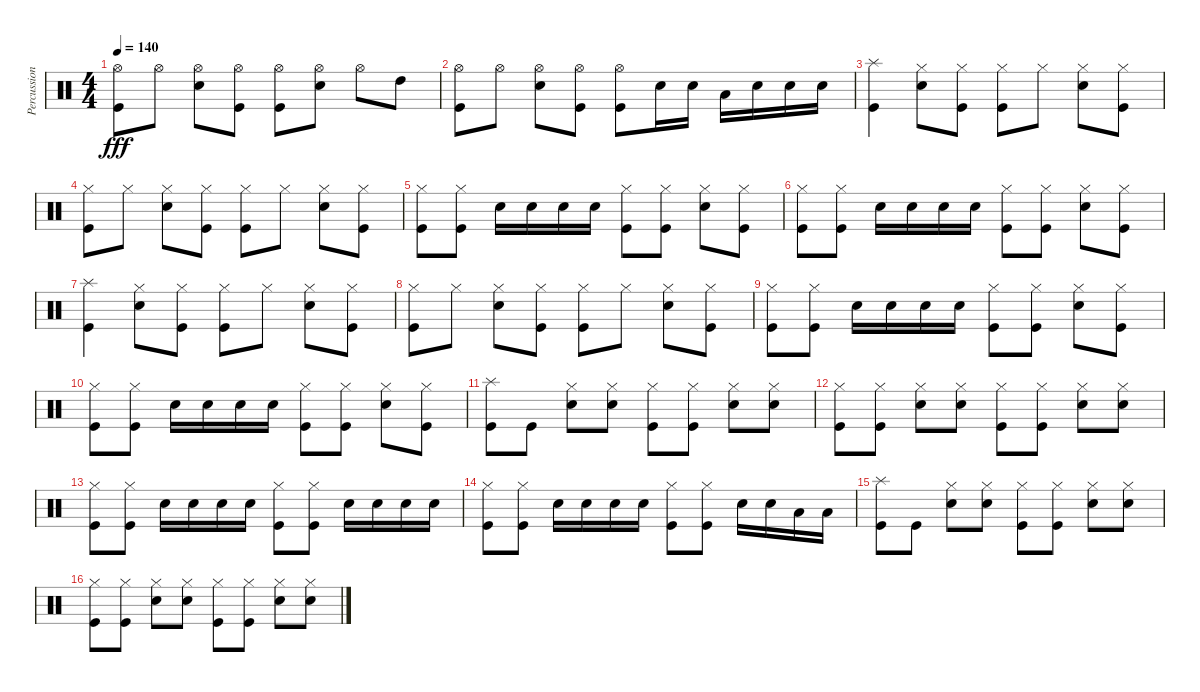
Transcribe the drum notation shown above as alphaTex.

\track ("Percussion" "Percussion") {instrument percussion}
\staff {score}
\articulation defaults
\ts (4 4)
\tempo 140
\clef neutral
\ks c
("Hi-Hat (open)" "Kick (hit)").8{dy fff} "Hi-Hat (open)".8 ("Hi-Hat (open)" "Snare (hit) 2").8 ("Hi-Hat (open)" "Kick (hit)").8 ("Hi-Hat (open)" "Kick (hit)").8 ("Hi-Hat (open)" "Snare (hit) 2").8 "Hi-Hat (open)".8 "High Tom (hit)".8 |
("Hi-Hat (open)" "Kick (hit)").8 "Hi-Hat (open)".8 ("Hi-Hat (open)" "Snare (hit) 2").8 ("Hi-Hat (open)" "Kick (hit)").8 ("Hi-Hat (open)" "Kick (hit)").8 "Snare (hit) 2".16 "Snare (hit) 2".16 "Low Tom (hit)".16 "Snare (hit) 2".16 "Snare (hit) 2".16 "Snare (hit) 2".16 |
("Splash (hit)" "Kick (hit)").4 ("Hi-Hat (closed)" "Snare (hit) 2").8 ("Hi-Hat (closed)" "Kick (hit)").8 ("Hi-Hat (closed)" "Kick (hit)").8 "Hi-Hat (closed)".8 ("Hi-Hat (closed)" "Snare (hit) 2").8 ("Hi-Hat (closed)" "Kick (hit)").8 |
("Hi-Hat (closed)" "Kick (hit)").8 "Hi-Hat (closed)".8 ("Hi-Hat (closed)" "Snare (hit) 2").8 ("Hi-Hat (closed)" "Kick (hit)").8 ("Hi-Hat (closed)" "Kick (hit)").8 "Hi-Hat (closed)".8 ("Hi-Hat (closed)" "Snare (hit) 2").8 ("Hi-Hat (closed)" "Kick (hit)").8 |
("Hi-Hat (closed)" "Kick (hit)").8 ("Hi-Hat (closed)" "Kick (hit)").8 "Snare (hit) 2".16 "Snare (hit) 2".16 "Snare (hit) 2".16 "Snare (hit) 2".16 ("Hi-Hat (closed)" "Kick (hit)").8 ("Hi-Hat (closed)" "Kick (hit)").8 ("Hi-Hat (closed)" "Snare (hit) 2").8 ("Hi-Hat (closed)" "Kick (hit)").8 |
("Hi-Hat (closed)" "Kick (hit)").8 ("Hi-Hat (closed)" "Kick (hit)").8 "Snare (hit) 2".16 "Snare (hit) 2".16 "Snare (hit) 2".16 "Snare (hit) 2".16 ("Hi-Hat (closed)" "Kick (hit)").8 ("Hi-Hat (closed)" "Kick (hit)").8 ("Hi-Hat (closed)" "Snare (hit) 2").8 ("Hi-Hat (closed)" "Kick (hit)").8 |
("Splash (hit)" "Kick (hit)").4 ("Hi-Hat (closed)" "Snare (hit) 2").8 ("Hi-Hat (closed)" "Kick (hit)").8 ("Hi-Hat (closed)" "Kick (hit)").8 "Hi-Hat (closed)".8 ("Hi-Hat (closed)" "Snare (hit) 2").8 ("Hi-Hat (closed)" "Kick (hit)").8 |
("Hi-Hat (closed)" "Kick (hit)").8 "Hi-Hat (closed)".8 ("Hi-Hat (closed)" "Snare (hit) 2").8 ("Hi-Hat (closed)" "Kick (hit)").8 ("Hi-Hat (closed)" "Kick (hit)").8 "Hi-Hat (closed)".8 ("Hi-Hat (closed)" "Snare (hit) 2").8 ("Hi-Hat (closed)" "Kick (hit)").8 |
("Hi-Hat (closed)" "Kick (hit)").8 ("Hi-Hat (closed)" "Kick (hit)").8 "Snare (hit) 2".16 "Snare (hit) 2".16 "Snare (hit) 2".16 "Snare (hit) 2".16 ("Hi-Hat (closed)" "Kick (hit)").8 ("Hi-Hat (closed)" "Kick (hit)").8 ("Hi-Hat (closed)" "Snare (hit) 2").8 ("Hi-Hat (closed)" "Kick (hit)").8 |
("Hi-Hat (closed)" "Kick (hit)").8 ("Hi-Hat (closed)" "Kick (hit)").8 "Snare (hit) 2".16 "Snare (hit) 2".16 "Snare (hit) 2".16 "Snare (hit) 2".16 ("Hi-Hat (closed)" "Kick (hit)").8 ("Hi-Hat (closed)" "Kick (hit)").8 ("Hi-Hat (closed)" "Snare (hit) 2").8 ("Hi-Hat (closed)" "Kick (hit)").8 |
("Splash (hit)" "Kick (hit)").8 "Kick (hit)".8 ("Hi-Hat (closed)" "Snare (hit) 2").8 ("Hi-Hat (closed)" "Snare (hit) 2").8 ("Hi-Hat (closed)" "Kick (hit)").8 ("Hi-Hat (closed)" "Kick (hit)").8 ("Hi-Hat (closed)" "Snare (hit) 2").8 ("Hi-Hat (closed)" "Snare (hit) 2").8 |
("Hi-Hat (closed)" "Kick (hit)").8 ("Hi-Hat (closed)" "Kick (hit)").8 ("Hi-Hat (closed)" "Snare (hit) 2").8 ("Hi-Hat (closed)" "Snare (hit) 2").8 ("Hi-Hat (closed)" "Kick (hit)").8 ("Hi-Hat (closed)" "Kick (hit)").8 ("Hi-Hat (closed)" "Snare (hit) 2").8 ("Hi-Hat (closed)" "Snare (hit) 2").8 |
("Hi-Hat (closed)" "Kick (hit)").8 ("Hi-Hat (closed)" "Kick (hit)").8 "Snare (hit) 2".16 "Snare (hit) 2".16 "Snare (hit) 2".16 "Snare (hit) 2".16 ("Hi-Hat (closed)" "Kick (hit)").8 ("Hi-Hat (closed)" "Kick (hit)").8 "Snare (hit) 2".16 "Snare (hit) 2".16 "Snare (hit) 2".16 "Snare (hit) 2".16 |
("Hi-Hat (closed)" "Kick (hit)").8 ("Hi-Hat (closed)" "Kick (hit)").8 "Snare (hit) 2".16 "Snare (hit) 2".16 "Snare (hit) 2".16 "Snare (hit) 2".16 ("Hi-Hat (closed)" "Kick (hit)").8 ("Hi-Hat (closed)" "Kick (hit)").8 "Snare (hit) 2".16 "Snare (hit) 2".16 "Low Tom (hit)".16 "Low Tom (hit)".16 |
("Splash (hit)" "Kick (hit)").8 "Kick (hit)".8 ("Hi-Hat (closed)" "Snare (hit) 2").8 ("Hi-Hat (closed)" "Snare (hit) 2").8 ("Hi-Hat (closed)" "Kick (hit)").8 ("Hi-Hat (closed)" "Kick (hit)").8 ("Hi-Hat (closed)" "Snare (hit) 2").8 ("Hi-Hat (closed)" "Snare (hit) 2").8 |
("Hi-Hat (closed)" "Kick (hit)").8 ("Hi-Hat (closed)" "Kick (hit)").8 ("Hi-Hat (closed)" "Snare (hit) 2").8 ("Hi-Hat (closed)" "Snare (hit) 2").8 ("Hi-Hat (closed)" "Kick (hit)").8 ("Hi-Hat (closed)" "Kick (hit)").8 ("Hi-Hat (closed)" "Snare (hit) 2").8 ("Hi-Hat (closed)" "Snare (hit) 2").8
